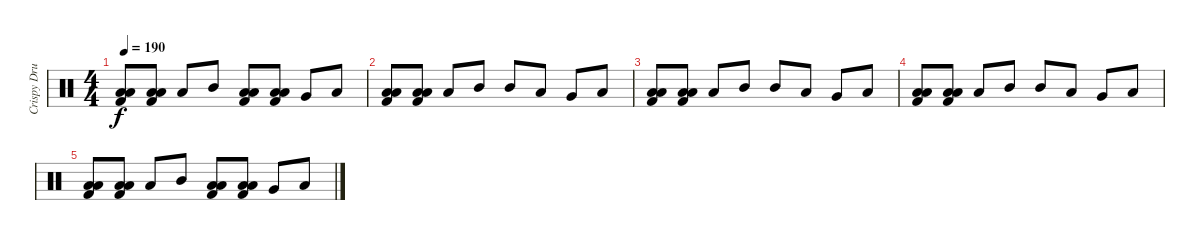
\track ("Crispy Drums" "Crispy Dru") {instrument percussion}
\staff {score}
\articulation defaults
\ts (4 4)
\tempo 190
\clef neutral
\ks c
("Low Tom (hit)" "Low Floor Tom (hit)" "Kick (hit) 2").8{dy f} ("Low Tom (hit)" "Low Floor Tom (hit)" "Kick (hit) 2").8 "Low Tom (hit)".8 "Mid Tom (hit)".8 ("Low Tom (hit)" "Low Floor Tom (hit)" "Kick (hit) 2").8 ("Low Tom (hit)" "Low Floor Tom (hit)" "Kick (hit) 2").8 "Very Low Tom (hit)".8 "Low Floor Tom (hit)".8 |
("Low Tom (hit)" "Low Floor Tom (hit)" "Kick (hit) 2").8 ("Low Tom (hit)" "Low Floor Tom (hit)" "Kick (hit) 2").8 "Low Tom (hit)".8 "Mid Tom (hit)".8 "Mid Tom (hit)".8 "Low Floor Tom (hit)".8 "Very Low Tom (hit)".8 "Low Floor Tom (hit)".8 |
("Low Tom (hit)" "Low Floor Tom (hit)" "Kick (hit) 2").8 ("Low Tom (hit)" "Low Floor Tom (hit)" "Kick (hit) 2").8 "Low Tom (hit)".8 "Mid Tom (hit)".8 "Mid Tom (hit)".8 "Low Floor Tom (hit)".8 "Very Low Tom (hit)".8 "Low Floor Tom (hit)".8 |
("Low Tom (hit)" "Low Floor Tom (hit)" "Kick (hit) 2").8 ("Low Tom (hit)" "Low Floor Tom (hit)" "Kick (hit) 2").8 "Low Tom (hit)".8 "Mid Tom (hit)".8 "Mid Tom (hit)".8 "Low Floor Tom (hit)".8 "Very Low Tom (hit)".8 "Low Floor Tom (hit)".8 |
("Low Tom (hit)" "Low Floor Tom (hit)" "Kick (hit) 2").8 ("Low Tom (hit)" "Low Floor Tom (hit)" "Kick (hit) 2").8 "Low Tom (hit)".8 "Mid Tom (hit)".8 ("Low Tom (hit)" "Low Floor Tom (hit)" "Kick (hit) 2").8 ("Low Tom (hit)" "Low Floor Tom (hit)" "Kick (hit) 2").8 "Very Low Tom (hit)".8 "Low Floor Tom (hit)".8
